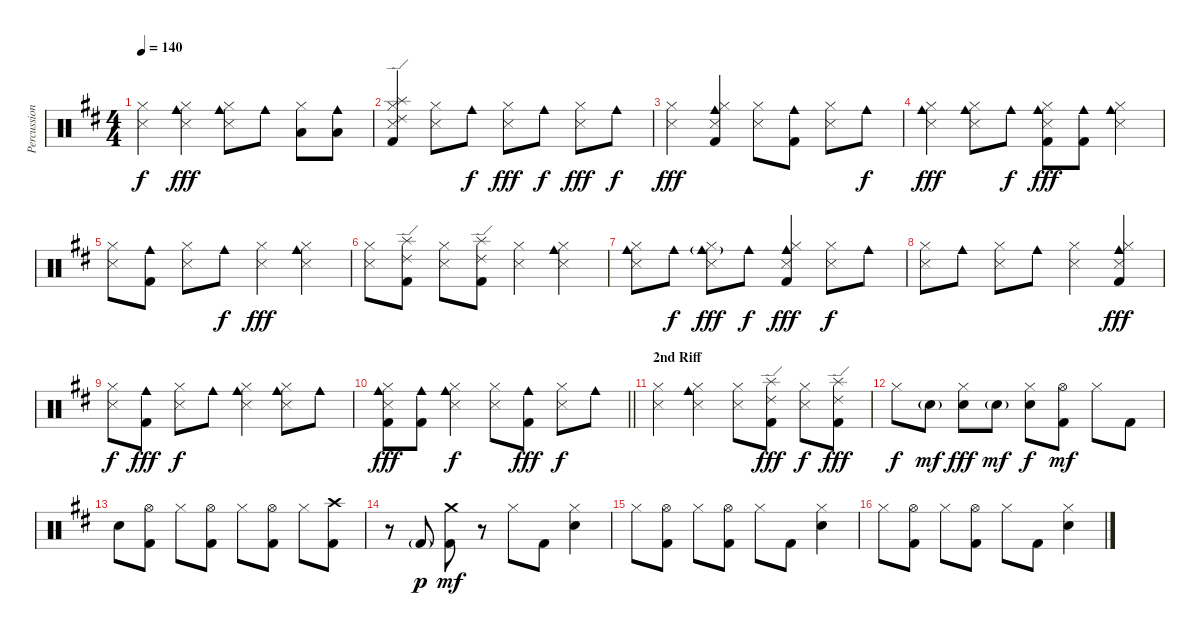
\track ("Percussions" "Percussion") {instrument percussion}
\staff {score}
\articulation defaults
\ts (4 4)
\tempo 140
\clef neutral
\ks d
("Snare (side stick) 3" "Hi-Hat (closed)").4{dy f} ("Cowbell medium (hit)" "Snare (side stick) 3" "Hi-Hat (closed)").4{dy fff} ("Cowbell medium (hit)" "Snare (side stick) 3" "Hi-Hat (closed)").8 "Cowbell medium (hit)".8 ("Low Tom (hit)" "Hi-Hat (closed)").8 ("Cowbell medium (hit)" "Low Tom (hit)").8 |
("Splash (hit)" "Ride (edge) 2" "Snare (side stick) 3" "Kick (hit) 2" "Hi-Hat (closed)").4 ("Snare (side stick) 3" "Hi-Hat (closed)").8 "Cowbell medium (hit)".8{dy f} ("Snare (side stick) 3" "Hi-Hat (closed)").8{dy fff} "Cowbell medium (hit)".8{dy f} ("Snare (side stick) 3" "Hi-Hat (closed)").8{dy fff} "Cowbell medium (hit)".8{dy f} |
("Snare (side stick) 3" "Hi-Hat (closed)").4{dy fff} ("Cowbell medium (hit)" "Snare (side stick) 3" "Kick (hit) 2" "Hi-Hat (closed)").4 ("Snare (side stick) 3" "Hi-Hat (closed)").8 ("Cowbell medium (hit)" "Kick (hit) 2").8 ("Snare (side stick) 3" "Hi-Hat (closed)").8 "Cowbell medium (hit)".8{dy f} |
("Cowbell medium (hit)" "Snare (side stick) 3" "Hi-Hat (closed)").4{dy fff} ("Cowbell medium (hit)" "Snare (side stick) 3" "Hi-Hat (closed)").8 "Cowbell medium (hit)".8{dy f} ("Cowbell medium (hit)" "Snare (side stick) 3" "Kick (hit) 2" "Hi-Hat (closed)").8{dy fff} ("Cowbell medium (hit)" "Kick (hit) 2").8 ("Cowbell medium (hit)" "Snare (side stick) 3" "Hi-Hat (closed)").4 |
("Snare (side stick) 3" "Hi-Hat (closed)").8 ("Cowbell medium (hit)" "Kick (hit) 2").8 ("Snare (side stick) 3" "Hi-Hat (closed)").8 "Cowbell medium (hit)".8{dy f} ("Snare (side stick) 3" "Hi-Hat (closed)").4{dy fff} ("Cowbell medium (hit)" "Snare (side stick) 3" "Hi-Hat (closed)").4 |
("Snare (side stick) 3" "Hi-Hat (closed)").8 ("Ride (edge) 2" "Splash (hit)" "Kick (hit) 2").8 ("Snare (side stick) 3" "Hi-Hat (closed)").8 ("Ride (edge) 2" "Splash (hit)" "Kick (hit) 2").8 ("Snare (side stick) 3" "Hi-Hat (closed)").4 ("Cowbell medium (hit)" "Snare (side stick) 3" "Hi-Hat (closed)").4 |
("Cowbell medium (hit)" "Snare (side stick) 3" "Hi-Hat (closed)").8 "Cowbell medium (hit)".8{dy f} ("Cowbell medium (hit)"{g} "Snare (side stick) 3" "Hi-Hat (closed)").8{dy fff} "Cowbell medium (hit)".8{dy f} ("Cowbell medium (hit)" "Snare (side stick) 3" "Kick (hit) 2" "Hi-Hat (closed)").4{dy fff} ("Snare (side stick) 3" "Hi-Hat (closed)").8{dy f} "Cowbell medium (hit)".8 |
("Snare (side stick) 3" "Hi-Hat (closed)").8 "Cowbell medium (hit)".8 ("Snare (side stick) 3" "Hi-Hat (closed)").8 "Cowbell medium (hit)".8 ("Snare (side stick) 3" "Hi-Hat (closed)").4 ("Cowbell medium (hit)" "Snare (side stick) 3" "Kick (hit) 2" "Hi-Hat (closed)").4{dy fff} |
("Snare (side stick) 3" "Hi-Hat (closed)").8{dy f} ("Cowbell medium (hit)" "Kick (hit) 2").8{dy fff} ("Snare (side stick) 3" "Hi-Hat (closed)").8{dy f} "Cowbell medium (hit)".8 ("Cowbell medium (hit)" "Snare (side stick) 3" "Hi-Hat (closed)").4 ("Cowbell medium (hit)" "Snare (side stick) 3" "Hi-Hat (closed)").8 "Cowbell medium (hit)".8 |
\barLineRight lightlight
("Cowbell medium (hit)" "Snare (side stick) 3" "Kick (hit) 2" "Hi-Hat (closed)").8{dy fff} ("Cowbell medium (hit)" "Kick (hit) 2").8 ("Cowbell medium (hit)" "Snare (side stick) 3" "Hi-Hat (closed)").4{dy f} ("Snare (side stick) 3" "Hi-Hat (closed)").8 ("Cowbell medium (hit)" "Kick (hit) 2").8{dy fff} ("Snare (side stick) 3" "Hi-Hat (closed)").8{dy f} "Cowbell medium (hit)".8 |
\section ("" "2nd Riff")
("Snare (side stick) 3" "Hi-Hat (closed)").4 ("Cowbell medium (hit)" "Snare (side stick) 3" "Hi-Hat (closed)").4 ("Snare (side stick) 3" "Hi-Hat (closed)").8 ("Ride (edge) 2" "Splash (hit)" "Kick (hit) 2").8{dy fff} ("Snare (side stick) 3" "Hi-Hat (closed)").8{dy f} ("Ride (edge) 2" "Splash (hit)" "Kick (hit) 2").8{dy fff} |
"Hi-Hat (closed)".8{dy f} "Electric Snare (hit)"{g}.8{dy mf} ("Electric Snare (hit)" "Hi-Hat (closed)").8{dy fff} "Electric Snare (hit)"{g}.8{dy mf} ("Electric Snare (hit)" "Hi-Hat (closed)").8{dy f} ("Kick (hit) 2" "Hi-Hat (open)").8{dy mf} "Hi-Hat (closed)".8 "Kick (hit) 2".8 |
"Electric Snare (hit)".8 ("Kick (hit) 2" "Hi-Hat (open)").8 "Hi-Hat (closed)".8 ("Kick (hit) 2" "Hi-Hat (open)").8 "Hi-Hat (closed)".8 ("Kick (hit) 2" "Hi-Hat (open)").8 "Hi-Hat (closed)".8 ("Crash high (hit)" "Kick (hit) 2").8 |
r.8 "Kick (hit) 2"{g}.8{dy p} ("Crash medium (hit)" "Kick (hit) 2").8{dy mf} r.8 "Hi-Hat (closed)".8 "Kick (hit) 2".8 ("Electric Snare (hit)" "Hi-Hat (closed)").4 |
"Hi-Hat (closed)".8 ("Kick (hit) 2" "Hi-Hat (open)").8 "Hi-Hat (closed)".8 ("Kick (hit) 2" "Hi-Hat (open)").8 "Hi-Hat (closed)".8 "Kick (hit) 2".8 ("Electric Snare (hit)" "Hi-Hat (closed)").4 |
"Hi-Hat (closed)".8 ("Kick (hit) 2" "Hi-Hat (open)").8 "Hi-Hat (closed)".8 ("Kick (hit) 2" "Hi-Hat (open)").8 "Hi-Hat (closed)".8 "Kick (hit) 2".8 ("Electric Snare (hit)" "Hi-Hat (closed)").4
